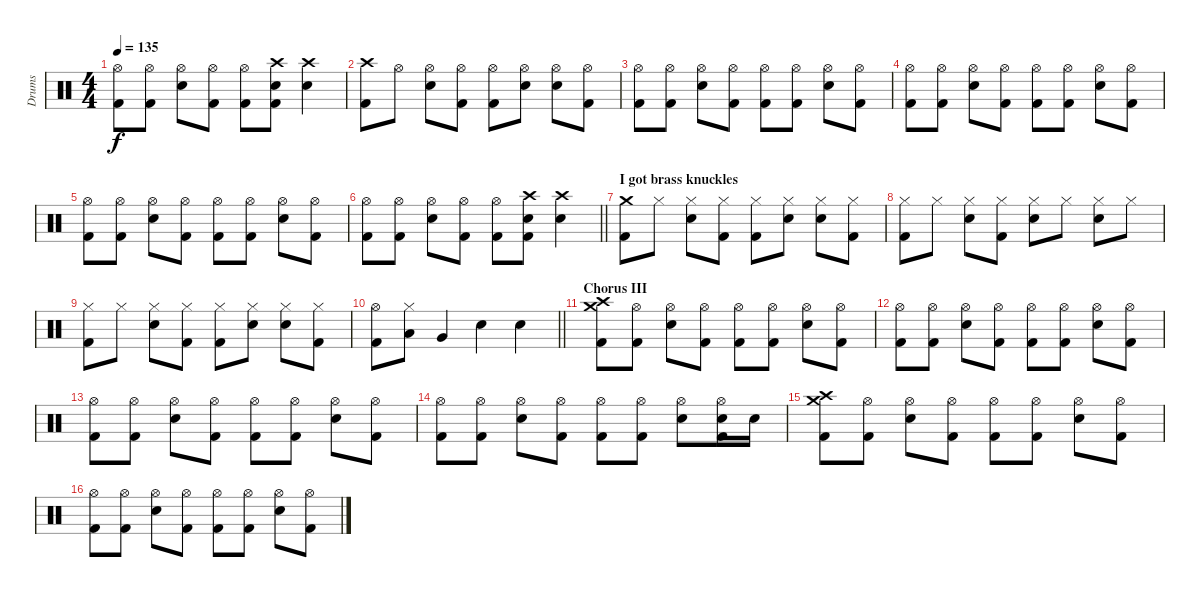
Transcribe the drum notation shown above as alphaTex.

\track ("Drums" "Drums") {instrument percussion}
\staff {score}
\articulation defaults
\ts (4 4)
\tempo 135
\clef neutral
\ks c
("Hi-Hat (open)" "Kick (hit) 2").8{dy f} ("Hi-Hat (open)" "Kick (hit) 2").8 ("Hi-Hat (open)" "Electric Snare (hit)").8 ("Hi-Hat (open)" "Kick (hit) 2").8 ("Hi-Hat (open)" "Kick (hit) 2").8 ("Crash high (hit)" "Electric Snare (hit)" "Kick (hit) 2").8 ("Crash high (hit)" "Electric Snare (hit)").4 |
("Crash high (hit)" "Kick (hit) 2").8 "Hi-Hat (open)".8 ("Hi-Hat (open)" "Electric Snare (hit)").8 ("Hi-Hat (open)" "Kick (hit) 2").8 ("Hi-Hat (open)" "Kick (hit) 2").8 ("Hi-Hat (open)" "Electric Snare (hit)").8 ("Hi-Hat (open)" "Electric Snare (hit)").8 ("Hi-Hat (open)" "Kick (hit) 2").8 |
("Hi-Hat (open)" "Kick (hit) 2").8 ("Hi-Hat (open)" "Kick (hit) 2").8 ("Hi-Hat (open)" "Electric Snare (hit)").8 ("Hi-Hat (open)" "Kick (hit) 2").8 ("Hi-Hat (open)" "Kick (hit) 2").8 ("Hi-Hat (open)" "Kick (hit) 2").8 ("Hi-Hat (open)" "Electric Snare (hit)").8 ("Hi-Hat (open)" "Kick (hit) 2").8 |
("Hi-Hat (open)" "Kick (hit) 2").8 ("Hi-Hat (open)" "Kick (hit) 2").8 ("Hi-Hat (open)" "Electric Snare (hit)").8 ("Hi-Hat (open)" "Kick (hit) 2").8 ("Hi-Hat (open)" "Kick (hit) 2").8 ("Hi-Hat (open)" "Kick (hit) 2").8 ("Hi-Hat (open)" "Electric Snare (hit)").8 ("Hi-Hat (open)" "Kick (hit) 2").8 |
("Hi-Hat (open)" "Kick (hit) 2").8 ("Hi-Hat (open)" "Kick (hit) 2").8 ("Hi-Hat (open)" "Electric Snare (hit)").8 ("Hi-Hat (open)" "Kick (hit) 2").8 ("Hi-Hat (open)" "Kick (hit) 2").8 ("Hi-Hat (open)" "Kick (hit) 2").8 ("Hi-Hat (open)" "Electric Snare (hit)").8 ("Hi-Hat (open)" "Kick (hit) 2").8 |
\barLineRight lightlight
("Hi-Hat (open)" "Kick (hit) 2").8 ("Hi-Hat (open)" "Kick (hit) 2").8 ("Hi-Hat (open)" "Electric Snare (hit)").8 ("Hi-Hat (open)" "Kick (hit) 2").8 ("Hi-Hat (open)" "Kick (hit) 2").8 ("Crash high (hit)" "Electric Snare (hit)" "Kick (hit) 2").8 ("Crash high (hit)" "Electric Snare (hit)").4 |
\section ("" "I got brass knuckles")
("Crash medium (hit)" "Kick (hit) 2").8 "Hi-Hat (closed)".8 ("Hi-Hat (closed)" "Electric Snare (hit)").8 ("Hi-Hat (closed)" "Kick (hit) 2").8 ("Hi-Hat (closed)" "Kick (hit) 2").8 ("Hi-Hat (closed)" "Electric Snare (hit)").8 ("Hi-Hat (closed)" "Electric Snare (hit)").8 ("Hi-Hat (closed)" "Kick (hit) 2").8 |
("Hi-Hat (closed)" "Kick (hit) 2").8{volume 13} "Hi-Hat (closed)".8 ("Hi-Hat (closed)" "Electric Snare (hit)").8 ("Hi-Hat (closed)" "Kick (hit) 2").8 ("Hi-Hat (closed)" "Electric Snare (hit)").8 "Hi-Hat (closed)".8 ("Hi-Hat (closed)" "Electric Snare (hit)").8 "Hi-Hat (closed)".8 |
("Hi-Hat (closed)" "Kick (hit) 2").8 "Hi-Hat (closed)".8 ("Hi-Hat (closed)" "Electric Snare (hit)").8 ("Hi-Hat (closed)" "Kick (hit) 2").8 ("Hi-Hat (closed)" "Kick (hit) 2").8 ("Hi-Hat (closed)" "Electric Snare (hit)").8 ("Hi-Hat (closed)" "Electric Snare (hit)").8 ("Hi-Hat (closed)" "Kick (hit) 2").8 |
\barLineRight lightlight
("Hi-Hat (open)" "Kick (hit) 2").8 ("Hi-Hat (closed)" "Low Tom (hit)").8 "Very Low Tom (hit)".4 "Electric Snare (hit)".4{volume 7} "Electric Snare (hit)".4{volume 4} |
\section ("" "Chorus III")
("Crash high (hit)" "Crash medium (hit)" "Kick (hit) 2").8{volume 13} ("Hi-Hat (open)" "Kick (hit) 2").8 ("Hi-Hat (open)" "Electric Snare (hit)").8 ("Hi-Hat (open)" "Kick (hit) 2").8 ("Hi-Hat (open)" "Kick (hit) 2").8 ("Hi-Hat (open)" "Kick (hit) 2").8 ("Hi-Hat (open)" "Electric Snare (hit)").8 ("Hi-Hat (open)" "Kick (hit) 2").8 |
("Hi-Hat (open)" "Kick (hit) 2").8 ("Hi-Hat (open)" "Kick (hit) 2").8 ("Hi-Hat (open)" "Electric Snare (hit)").8 ("Hi-Hat (open)" "Kick (hit) 2").8 ("Hi-Hat (open)" "Kick (hit) 2").8 ("Hi-Hat (open)" "Kick (hit) 2").8 ("Hi-Hat (open)" "Electric Snare (hit)").8 ("Hi-Hat (open)" "Kick (hit) 2").8 |
("Hi-Hat (open)" "Kick (hit) 2").8 ("Hi-Hat (open)" "Kick (hit) 2").8 ("Hi-Hat (open)" "Electric Snare (hit)").8 ("Hi-Hat (open)" "Kick (hit) 2").8 ("Hi-Hat (open)" "Kick (hit) 2").8 ("Hi-Hat (open)" "Kick (hit) 2").8 ("Hi-Hat (open)" "Electric Snare (hit)").8 ("Hi-Hat (open)" "Kick (hit) 2").8 |
("Hi-Hat (open)" "Kick (hit) 2").8 ("Hi-Hat (open)" "Kick (hit) 2").8 ("Hi-Hat (open)" "Electric Snare (hit)").8 ("Hi-Hat (open)" "Kick (hit) 2").8 ("Hi-Hat (open)" "Kick (hit) 2").8 ("Hi-Hat (open)" "Kick (hit) 2").8 ("Hi-Hat (open)" "Electric Snare (hit)").8 ("Hi-Hat (open)" "Electric Snare (hit)" "Kick (hit) 2").16 "Electric Snare (hit)".16 |
("Crash high (hit)" "Crash medium (hit)" "Kick (hit) 2").8 ("Hi-Hat (open)" "Kick (hit) 2").8 ("Hi-Hat (open)" "Electric Snare (hit)").8 ("Hi-Hat (open)" "Kick (hit) 2").8 ("Hi-Hat (open)" "Kick (hit) 2").8 ("Hi-Hat (open)" "Kick (hit) 2").8 ("Hi-Hat (open)" "Electric Snare (hit)").8 ("Hi-Hat (open)" "Kick (hit) 2").8 |
("Hi-Hat (open)" "Kick (hit) 2").8 ("Hi-Hat (open)" "Kick (hit) 2").8 ("Hi-Hat (open)" "Electric Snare (hit)").8 ("Hi-Hat (open)" "Kick (hit) 2").8 ("Hi-Hat (open)" "Kick (hit) 2").8 ("Hi-Hat (open)" "Kick (hit) 2").8 ("Hi-Hat (open)" "Electric Snare (hit)").8 ("Hi-Hat (open)" "Kick (hit) 2").8
